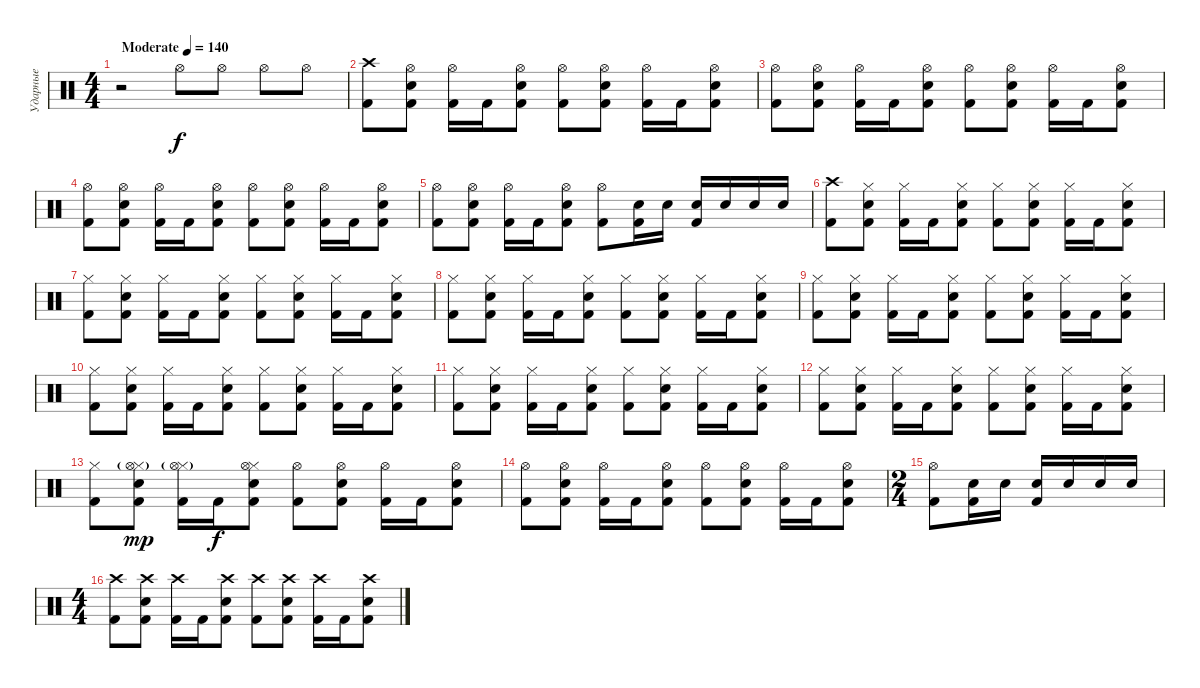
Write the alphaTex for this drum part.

\track ("Ударные" "Ударные") {instrument percussion}
\staff {score}
\articulation defaults
\ts (4 4)
\tempo (140 "Moderate")
\clef neutral
\ks c
r.2{dy f} "Hi-Hat (open)".8 "Hi-Hat (open)".8 "Hi-Hat (open)".8 "Hi-Hat (open)".8 |
("Crash high (hit)" "Kick (hit) 2").8 ("Hi-Hat (open)" "Electric Snare (hit)" "Kick (hit) 2").8 ("Hi-Hat (open)" "Kick (hit) 2").16 "Kick (hit) 2".16 ("Hi-Hat (open)" "Electric Snare (hit)" "Kick (hit) 2").8 ("Hi-Hat (open)" "Kick (hit) 2").8 ("Hi-Hat (open)" "Electric Snare (hit)" "Kick (hit) 2").8 ("Hi-Hat (open)" "Kick (hit) 2").16 "Kick (hit) 2".16 ("Hi-Hat (open)" "Electric Snare (hit)" "Kick (hit) 2").8 |
("Hi-Hat (open)" "Kick (hit) 2").8 ("Hi-Hat (open)" "Electric Snare (hit)" "Kick (hit) 2").8 ("Hi-Hat (open)" "Kick (hit) 2").16 "Kick (hit) 2".16 ("Hi-Hat (open)" "Electric Snare (hit)" "Kick (hit) 2").8 ("Hi-Hat (open)" "Kick (hit) 2").8 ("Hi-Hat (open)" "Electric Snare (hit)" "Kick (hit) 2").8 ("Hi-Hat (open)" "Kick (hit) 2").16 "Kick (hit) 2".16 ("Hi-Hat (open)" "Electric Snare (hit)" "Kick (hit) 2").8 |
("Hi-Hat (open)" "Kick (hit) 2").8 ("Hi-Hat (open)" "Electric Snare (hit)" "Kick (hit) 2").8 ("Hi-Hat (open)" "Kick (hit) 2").16 "Kick (hit) 2".16 ("Hi-Hat (open)" "Electric Snare (hit)" "Kick (hit) 2").8 ("Hi-Hat (open)" "Kick (hit) 2").8 ("Hi-Hat (open)" "Electric Snare (hit)" "Kick (hit) 2").8 ("Hi-Hat (open)" "Kick (hit) 2").16 "Kick (hit) 2".16 ("Hi-Hat (open)" "Electric Snare (hit)" "Kick (hit) 2").8 |
("Hi-Hat (open)" "Kick (hit) 2").8 ("Hi-Hat (open)" "Electric Snare (hit)" "Kick (hit) 2").8 ("Hi-Hat (open)" "Kick (hit) 2").16 "Kick (hit) 2".16 ("Hi-Hat (open)" "Electric Snare (hit)" "Kick (hit) 2").8 ("Hi-Hat (open)" "Kick (hit) 2").8 ("Electric Snare (hit)" "Kick (hit) 2").16 "Electric Snare (hit)".16 ("Electric Snare (hit)" "Kick (hit) 2").16 "Electric Snare (hit)".16 "Electric Snare (hit)".16 "Electric Snare (hit)".16 |
("Crash high (hit)" "Kick (hit) 2").8 ("Hi-Hat (closed)" "Electric Snare (hit)" "Kick (hit) 2").8 ("Hi-Hat (closed)" "Kick (hit) 2").16 "Kick (hit) 2".16 ("Hi-Hat (closed)" "Electric Snare (hit)" "Kick (hit) 2").8 ("Hi-Hat (closed)" "Kick (hit) 2").8 ("Hi-Hat (closed)" "Electric Snare (hit)" "Kick (hit) 2").8 ("Hi-Hat (closed)" "Kick (hit) 2").16 "Kick (hit) 2".16 ("Hi-Hat (closed)" "Electric Snare (hit)" "Kick (hit) 2").8 |
("Hi-Hat (closed)" "Kick (hit) 2").8 ("Hi-Hat (closed)" "Electric Snare (hit)" "Kick (hit) 2").8 ("Hi-Hat (closed)" "Kick (hit) 2").16 "Kick (hit) 2".16 ("Hi-Hat (closed)" "Electric Snare (hit)" "Kick (hit) 2").8 ("Hi-Hat (closed)" "Kick (hit) 2").8 ("Hi-Hat (closed)" "Electric Snare (hit)" "Kick (hit) 2").8 ("Hi-Hat (closed)" "Kick (hit) 2").16 "Kick (hit) 2".16 ("Hi-Hat (closed)" "Electric Snare (hit)" "Kick (hit) 2").8 |
("Hi-Hat (closed)" "Kick (hit) 2").8 ("Hi-Hat (closed)" "Electric Snare (hit)" "Kick (hit) 2").8 ("Hi-Hat (closed)" "Kick (hit) 2").16 "Kick (hit) 2".16 ("Hi-Hat (closed)" "Electric Snare (hit)" "Kick (hit) 2").8 ("Hi-Hat (closed)" "Kick (hit) 2").8 ("Hi-Hat (closed)" "Electric Snare (hit)" "Kick (hit) 2").8 ("Hi-Hat (closed)" "Kick (hit) 2").16 "Kick (hit) 2".16 ("Hi-Hat (closed)" "Electric Snare (hit)" "Kick (hit) 2").8 |
("Hi-Hat (closed)" "Kick (hit) 2").8 ("Hi-Hat (closed)" "Electric Snare (hit)" "Kick (hit) 2").8 ("Hi-Hat (closed)" "Kick (hit) 2").16 "Kick (hit) 2".16 ("Hi-Hat (closed)" "Electric Snare (hit)" "Kick (hit) 2").8 ("Hi-Hat (closed)" "Kick (hit) 2").8 ("Hi-Hat (closed)" "Electric Snare (hit)" "Kick (hit) 2").8 ("Hi-Hat (closed)" "Kick (hit) 2").16 "Kick (hit) 2".16 ("Hi-Hat (closed)" "Electric Snare (hit)" "Kick (hit) 2").8 |
("Hi-Hat (closed)" "Kick (hit) 2").8 ("Hi-Hat (closed)" "Electric Snare (hit)" "Kick (hit) 2").8 ("Hi-Hat (closed)" "Kick (hit) 2").16 "Kick (hit) 2".16 ("Hi-Hat (closed)" "Electric Snare (hit)" "Kick (hit) 2").8 ("Hi-Hat (closed)" "Kick (hit) 2").8 ("Hi-Hat (closed)" "Electric Snare (hit)" "Kick (hit) 2").8 ("Hi-Hat (closed)" "Kick (hit) 2").16 "Kick (hit) 2".16 ("Hi-Hat (closed)" "Electric Snare (hit)" "Kick (hit) 2").8 |
("Hi-Hat (closed)" "Kick (hit) 2").8 ("Hi-Hat (closed)" "Electric Snare (hit)" "Kick (hit) 2").8 ("Hi-Hat (closed)" "Kick (hit) 2").16 "Kick (hit) 2".16 ("Hi-Hat (closed)" "Electric Snare (hit)" "Kick (hit) 2").8 ("Hi-Hat (closed)" "Kick (hit) 2").8 ("Hi-Hat (closed)" "Electric Snare (hit)" "Kick (hit) 2").8 ("Hi-Hat (closed)" "Kick (hit) 2").16 "Kick (hit) 2".16 ("Hi-Hat (closed)" "Electric Snare (hit)" "Kick (hit) 2").8 |
("Hi-Hat (closed)" "Kick (hit) 2").8 ("Hi-Hat (closed)" "Electric Snare (hit)" "Kick (hit) 2").8 ("Hi-Hat (closed)" "Kick (hit) 2").16 "Kick (hit) 2".16 ("Hi-Hat (closed)" "Electric Snare (hit)" "Kick (hit) 2").8 ("Hi-Hat (closed)" "Kick (hit) 2").8 ("Hi-Hat (closed)" "Electric Snare (hit)" "Kick (hit) 2").8 ("Hi-Hat (closed)" "Kick (hit) 2").16 "Kick (hit) 2".16 ("Hi-Hat (closed)" "Electric Snare (hit)" "Kick (hit) 2").8 |
("Hi-Hat (closed)" "Kick (hit) 2").8 ("Hi-Hat (closed)" "Hi-Hat (open)"{g} "Electric Snare (hit)" "Kick (hit) 2").8{dy mp} ("Hi-Hat (closed)" "Hi-Hat (open)"{g} "Kick (hit) 2").16 "Kick (hit) 2".16{dy f} ("Hi-Hat (closed)" "Hi-Hat (open)" "Electric Snare (hit)" "Kick (hit) 2").8 ("Hi-Hat (open)" "Kick (hit) 2").8 ("Hi-Hat (open)" "Electric Snare (hit)" "Kick (hit) 2").8 ("Hi-Hat (open)" "Kick (hit) 2").16 "Kick (hit) 2".16 ("Hi-Hat (open)" "Electric Snare (hit)" "Kick (hit) 2").8 |
("Hi-Hat (open)" "Kick (hit) 2").8 ("Hi-Hat (open)" "Electric Snare (hit)" "Kick (hit) 2").8 ("Hi-Hat (open)" "Kick (hit) 2").16 "Kick (hit) 2".16 ("Hi-Hat (open)" "Electric Snare (hit)" "Kick (hit) 2").8 ("Hi-Hat (open)" "Kick (hit) 2").8 ("Hi-Hat (open)" "Electric Snare (hit)" "Kick (hit) 2").8 ("Hi-Hat (open)" "Kick (hit) 2").16 "Kick (hit) 2".16 ("Hi-Hat (open)" "Electric Snare (hit)" "Kick (hit) 2").8 |
\ts (2 4)
("Hi-Hat (open)" "Kick (hit) 2").8 ("Electric Snare (hit)" "Kick (hit) 2").16 "Electric Snare (hit)".16 ("Electric Snare (hit)" "Kick (hit) 2").16 "Electric Snare (hit)".16 "Electric Snare (hit)".16 "Electric Snare (hit)".16 |
\ts (4 4)
("Crash high (hit)" "Kick (hit) 2").8 ("Crash high (hit)" "Electric Snare (hit)" "Kick (hit) 2").8 ("Crash high (hit)" "Kick (hit) 2").16 "Kick (hit) 2".16 ("Crash high (hit)" "Electric Snare (hit)" "Kick (hit) 2").8 ("Crash high (hit)" "Kick (hit) 2").8 ("Crash high (hit)" "Electric Snare (hit)" "Kick (hit) 2").8 ("Crash high (hit)" "Kick (hit) 2").16 "Kick (hit) 2".16 ("Crash high (hit)" "Electric Snare (hit)" "Kick (hit) 2").8
